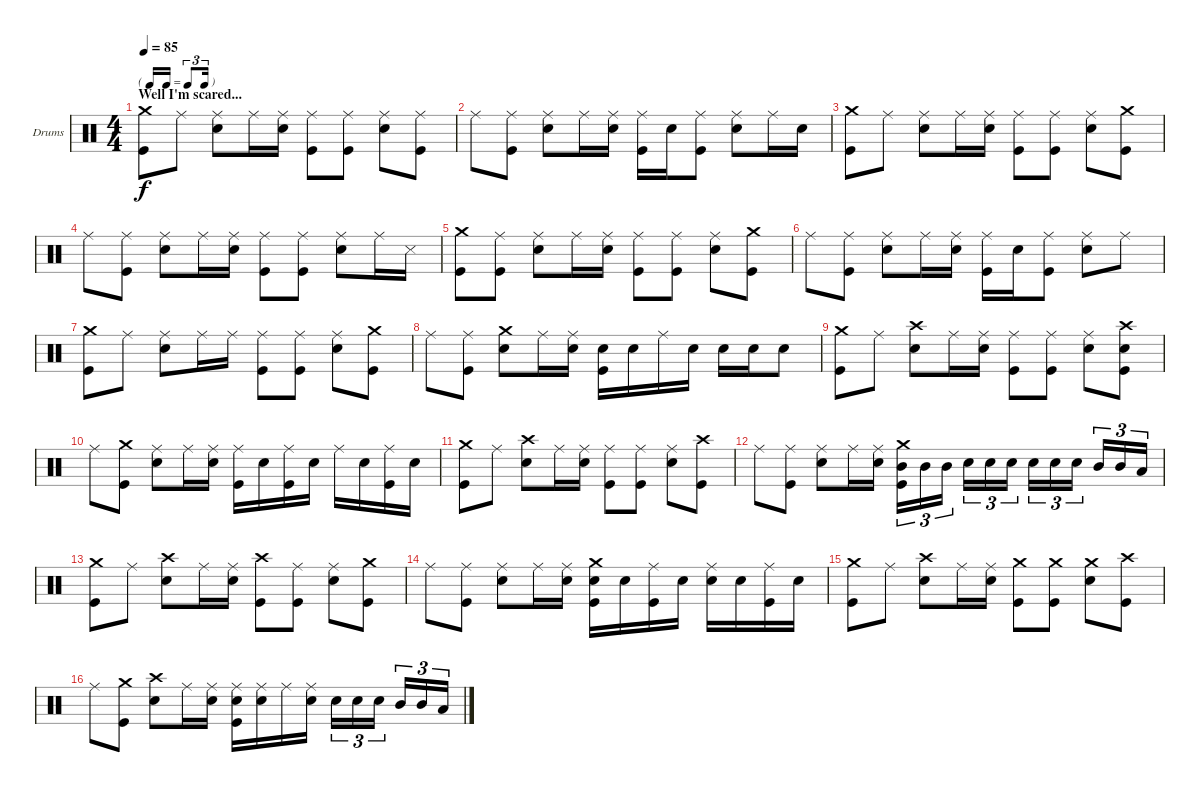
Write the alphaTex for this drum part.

\bracketExtendMode groupsimilarinstruments
\firstSystemTrackNameOrientation horizontal
\otherSystemsTrackNameOrientation horizontal
\track ("Drumkit" "Drums") {instrument percussion}
\staff {score}
\articulation defaults
\ts (4 4)
\tf triplet16th
\section ("" "Well I'm scared...")
\tempo 85
\clef neutral
\ks c
("Crash medium (hit)" "Kick (hit)").8{dy f} "Ride (middle)".8 ("Ride (middle)" "Snare (hit) 2").8 "Ride (middle)".16 ("Snare (hit) 2" "Ride (middle)").16 ("Ride (middle)" "Kick (hit)").8 ("Ride (middle)" "Kick (hit)").8 ("Ride (middle)" "Snare (hit) 2").8 ("Kick (hit)" "Ride (middle)").8 |
"Ride (middle)".8 ("Ride (middle)" "Kick (hit)").8 ("Ride (middle)" "Snare (hit) 2").8 "Ride (middle)".16 ("Snare (hit) 2" "Ride (middle)").16 ("Ride (middle)" "Kick (hit)").16 "Snare (hit) 2".16 ("Ride (middle)" "Kick (hit)").8 ("Ride (middle)" "Snare (hit) 2").8 "Ride (middle)".16 "Snare (hit) 2".16 |
("Crash medium (hit)" "Kick (hit)").8 "Ride (middle)".8 ("Ride (middle)" "Snare (hit) 2").8 "Ride (middle)".16 ("Snare (hit) 2" "Ride (middle)").16 ("Ride (middle)" "Kick (hit)").8 ("Ride (middle)" "Kick (hit)").8 ("Ride (middle)" "Snare (hit) 2").8 ("Crash medium (hit)" "Kick (hit)").8 |
"Ride (middle)".8 ("Ride (middle)" "Kick (hit)").8 ("Ride (middle)" "Snare (hit) 2").8 "Ride (middle)".16 ("Snare (hit) 2" "Ride (middle)").16 ("Ride (middle)" "Kick (hit)").8 ("Ride (middle)" "Kick (hit)").8 ("Ride (middle)" "Snare (hit) 2").8 "Ride (middle)".16 "Snare (side stick) 3".16 |
("Crash medium (hit)" "Kick (hit)").8 ("Ride (middle)" "Kick (hit)").8 ("Ride (middle)" "Snare (hit) 2").8 "Ride (middle)".16 ("Snare (hit) 2" "Ride (middle)").16 ("Ride (middle)" "Kick (hit)").8 ("Ride (middle)" "Kick (hit)").8 ("Ride (middle)" "Snare (hit) 2").8 ("Crash medium (hit)" "Kick (hit)").8 |
"Ride (middle)".8 ("Ride (middle)" "Kick (hit)").8 ("Ride (middle)" "Snare (hit) 2").8 "Ride (middle)".16 ("Snare (hit) 2" "Ride (middle)").16 ("Ride (middle)" "Kick (hit)").16 "Snare (hit) 2".16 ("Ride (middle)" "Kick (hit)").8 ("Ride (middle)" "Snare (hit) 2").8 "Ride (middle)".8 |
("Crash medium (hit)" "Kick (hit)").8 "Ride (middle)".8 ("Ride (middle)" "Snare (hit) 2").8 "Ride (middle)".16 "Ride (middle)".16 ("Ride (middle)" "Kick (hit)").8 ("Ride (middle)" "Kick (hit)").8 ("Ride (middle)" "Snare (hit) 2").8 ("Crash medium (hit)" "Kick (hit)").8 |
"Ride (middle)".8 ("Ride (middle)" "Kick (hit)").8 ("Snare (hit) 2" "Crash medium (hit)").8 "Ride (middle)".16 ("Snare (hit) 2" "Ride (middle)").16 ("Snare (hit) 2" "Kick (hit)").16 "Snare (hit) 2".16 "Ride (middle)".16 "Snare (hit) 2".16 "Snare (hit) 2".16 "Snare (hit) 2".16 "Snare (hit) 2".8 |
("Crash medium (hit)" "Kick (hit)").8 "Ride (middle)".8 ("Snare (hit) 2" "Crash high (hit)").8 "Ride (middle)".16 ("Ride (middle)" "Snare (hit) 2").16 ("Ride (middle)" "Kick (hit)").8 ("Ride (middle)" "Kick (hit)").8 ("Ride (middle)" "Snare (hit) 2").8 ("Crash high (hit)" "Snare (hit) 2" "Kick (hit)").8 |
"Ride (middle)".8 ("Kick (hit)" "Crash medium (hit)").8 ("Ride (middle)" "Snare (hit) 2").8 "Ride (middle)".16 ("Snare (hit) 2" "Ride (middle)").16 ("Ride (middle)" "Kick (hit)").16 "Snare (hit) 2".16 ("Ride (middle)" "Kick (hit)").16 "Snare (hit) 2".16 "Ride (middle)".16 "Snare (hit) 2".16 ("Ride (middle)" "Kick (hit)").16 "Snare (hit) 2".16 |
("Crash medium (hit)" "Kick (hit)").8 "Ride (middle)".8 ("Snare (hit) 2" "Crash high (hit)").8 "Ride (middle)".16 ("Snare (hit) 2" "Ride (middle)").16 ("Ride (middle)" "Kick (hit)").8 ("Ride (middle)" "Kick (hit)").8 ("Ride (middle)" "Snare (hit) 2").8 ("Crash high (hit)" "Kick (hit)").8 |
"Ride (middle)".8 ("Ride (middle)" "Kick (hit)").8 ("Ride (middle)" "Snare (hit) 2").8 "Ride (middle)".16 ("Snare (hit) 2" "Ride (middle)").16 ("Mid Tom (hit)" "Crash medium (hit)" "Kick (hit)").16{tu (3 2)} "Mid Tom (hit)".16{tu (3 2)} "Mid Tom (hit)".16{tu (3 2)} "Snare (hit) 2".16{tu (3 2)} "Snare (hit) 2".16{tu (3 2)} "Snare (hit) 2".16{tu (3 2)} "Snare (hit) 2".16{tu (3 2)} "Snare (hit) 2".16{tu (3 2)} "Snare (hit) 2".16{tu (3 2)} "Mid Tom (hit)".16{tu (3 2)} "Mid Tom (hit)".16{tu (3 2)} "Low Tom (hit)".16{tu (3 2)} |
("Crash medium (hit)" "Kick (hit)").8 "Ride (middle)".8 ("Snare (hit) 2" "Crash high (hit)").8 "Ride (middle)".16 ("Snare (hit) 2" "Ride (middle)").16 ("Kick (hit)" "Crash high (hit)").8 ("Ride (middle)" "Kick (hit)").8 ("Ride (middle)" "Snare (hit) 2").8 ("Crash medium (hit)" "Kick (hit)").8 |
"Ride (middle)".8 ("Ride (middle)" "Kick (hit)").8 ("Ride (middle)" "Snare (hit) 2").8 "Ride (middle)".16 ("Snare (hit) 2" "Ride (middle)").16 ("Kick (hit)" "Crash medium (hit)" "Snare (hit) 2").16 "Snare (hit) 2".16 ("Ride (middle)" "Kick (hit)").16 "Snare (hit) 2".16 ("Ride (middle)" "Snare (hit) 2").16 "Snare (hit) 2".16 ("Ride (middle)" "Kick (hit)").16 "Snare (hit) 2".16 |
("Crash medium (hit)" "Kick (hit)").8 "Ride (middle)".8 ("Snare (hit) 2" "Crash high (hit)").8 "Ride (middle)".16 ("Snare (hit) 2" "Ride (middle)").16 ("Kick (hit)" "Crash medium (hit)").8 ("Kick (hit)" "Crash medium (hit)").8 ("Snare (hit) 2" "Crash medium (hit)").8 ("Crash high (hit)" "Kick (hit)").8 |
"Ride (middle)".8 ("Kick (hit)" "Crash medium (hit)").8 ("Snare (hit) 2" "Crash high (hit)").8 "Ride (middle)".16 ("Snare (hit) 2" "Ride (middle)").16 ("Ride (middle)" "Kick (hit)" "Snare (hit) 2").16 ("Ride (middle)" "Snare (hit) 2").16 "Ride (middle)".16 ("Ride (middle)" "Snare (hit) 2").16 "Snare (hit) 2".16{tu (3 2)} "Snare (hit) 2".16{tu (3 2)} "Snare (hit) 2".16{tu (3 2)} "Mid Tom (hit)".16{tu (3 2)} "Mid Tom (hit)".16{tu (3 2)} "Low Tom (hit)".16{tu (3 2)}
